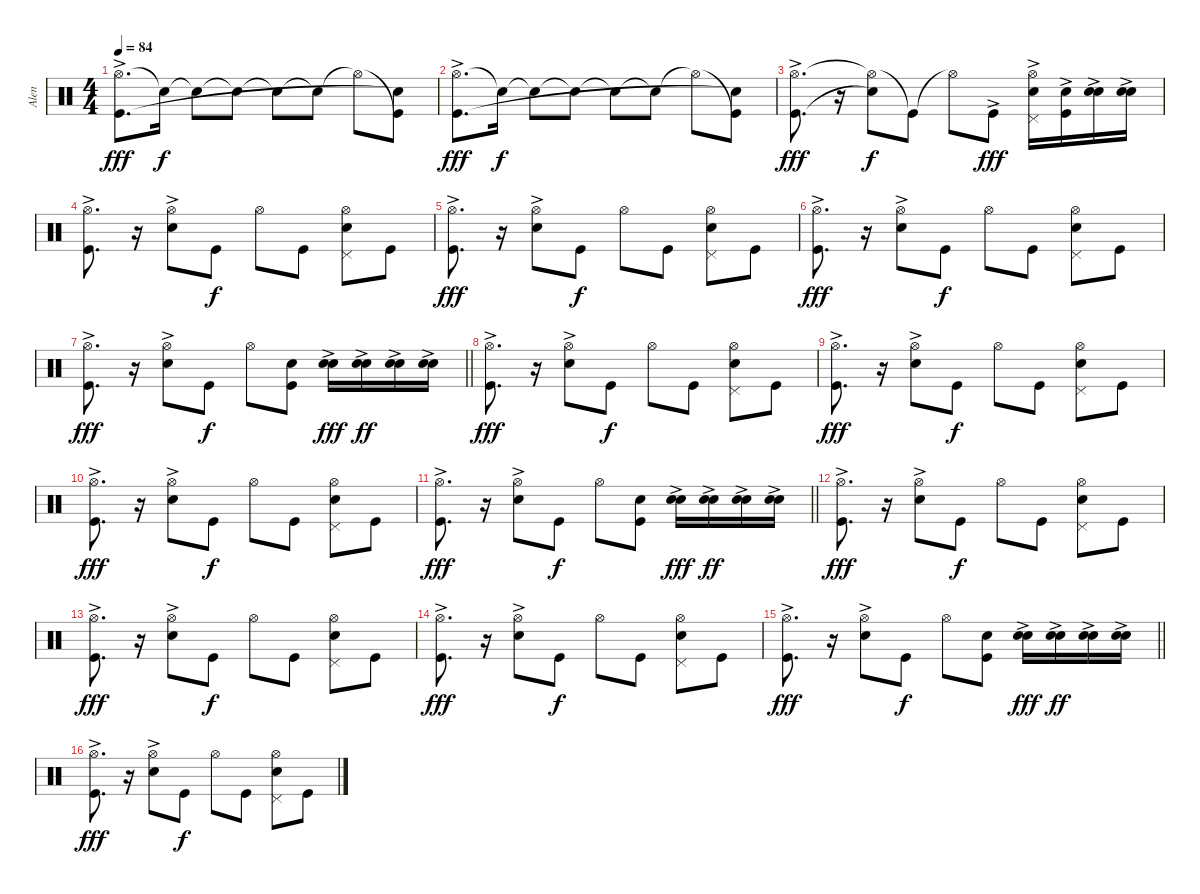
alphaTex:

\track ("Alen" "Alen") {instrument percussion}
\staff {score}
\articulation defaults
\ts (4 4)
\tempo 84
\clef neutral
\ks c
("Hi-Hat (open)"{ac} "Kick (hit)").8{d dy fff} "Snare (hit)"{t}.16{dy f} "Snare (hit) 2"{t}.8 "Snare (hit)"{t}.8 "Snare (hit)"{t}.8 "Snare (hit)"{t}.8 "Hi-Hat (open)"{t}.8 ("Kick (hit)"{t} "Snare (hit)"{t}).8 |
("Hi-Hat (open)"{ac} "Kick (hit)").8{d dy fff} "Snare (hit)"{t}.16{dy f} "Snare (hit) 2"{t}.8 "Snare (hit)"{t}.8 "Snare (hit)"{t}.8 "Snare (hit)"{t}.8 "Hi-Hat (open)"{t}.8 ("Kick (hit)"{t} "Snare (hit)"{t}).8 |
("Hi-Hat (open)"{ac} "Kick (hit)").8{d dy fff} r.16 ("Hi-Hat (open)"{t} "Snare (hit) 2"{t}).8{dy f} "Kick (hit)"{t}.8 "Hi-Hat (open)"{t}.8 "Kick (hit)"{ac}.8{dy fff} ("Pedal Hi-Hat (hit)"{ac} "Snare (hit) 2"{ac} "Hi-Hat (open)"{ac}).16 ("Kick (hit)"{ac} "Electric Snare (hit)"{ac}).16 ("Snare (hit) 2"{ac} "Electric Snare (hit)"{ac}).16 ("Snare (hit) 2"{ac} "Electric Snare (hit)"{ac}).16 |
("Hi-Hat (open)"{ac} "Kick (hit)").8{d} r.16 ("Hi-Hat (open)" "Snare (hit) 2"{ac}).8 "Kick (hit)".8{dy f} "Hi-Hat (open)".8 "Kick (hit)".8 ("Pedal Hi-Hat (hit)" "Snare (hit) 2" "Hi-Hat (open)").8 "Kick (hit)".8 |
("Hi-Hat (open)"{ac} "Kick (hit)").8{d dy fff} r.16 ("Hi-Hat (open)" "Snare (hit) 2"{ac}).8 "Kick (hit)".8{dy f} "Hi-Hat (open)".8 "Kick (hit)".8 ("Pedal Hi-Hat (hit)" "Snare (hit) 2" "Hi-Hat (open)").8 "Kick (hit)".8 |
("Hi-Hat (open)"{ac} "Kick (hit)").8{d dy fff} r.16 ("Hi-Hat (open)" "Snare (hit) 2"{ac}).8 "Kick (hit)".8{dy f} "Hi-Hat (open)".8 "Kick (hit)".8 ("Pedal Hi-Hat (hit)" "Snare (hit) 2" "Hi-Hat (open)").8 "Kick (hit)".8 |
\barLineRight lightlight
("Hi-Hat (open)"{ac} "Kick (hit)").8{d dy fff} r.16 ("Hi-Hat (open)" "Snare (hit) 2"{ac}).8 "Kick (hit)".8{dy f} "Hi-Hat (open)".8 ("Electric Snare (hit)" "Kick (hit)").8 ("Snare (hit) 2"{ac} "Electric Snare (hit)"{ac}).16{dy fff} ("Snare (hit) 2"{ac} "Electric Snare (hit)").16{dy ff} ("Snare (hit) 2"{ac} "Electric Snare (hit)").16 ("Snare (hit) 2"{ac} "Electric Snare (hit)").16 |
("Hi-Hat (open)"{ac} "Kick (hit)").8{d dy fff} r.16 ("Hi-Hat (open)" "Snare (hit) 2"{ac}).8 "Kick (hit)".8{dy f} "Hi-Hat (open)".8 "Kick (hit)".8 ("Pedal Hi-Hat (hit)" "Snare (hit) 2" "Hi-Hat (open)").8 "Kick (hit)".8 |
("Hi-Hat (open)"{ac} "Kick (hit)").8{d dy fff} r.16 ("Hi-Hat (open)" "Snare (hit) 2"{ac}).8 "Kick (hit)".8{dy f} "Hi-Hat (open)".8 "Kick (hit)".8 ("Pedal Hi-Hat (hit)" "Snare (hit) 2" "Hi-Hat (open)").8 "Kick (hit)".8 |
("Hi-Hat (open)"{ac} "Kick (hit)").8{d dy fff} r.16 ("Hi-Hat (open)" "Snare (hit) 2"{ac}).8 "Kick (hit)".8{dy f} "Hi-Hat (open)".8 "Kick (hit)".8 ("Pedal Hi-Hat (hit)" "Snare (hit) 2" "Hi-Hat (open)").8 "Kick (hit)".8 |
\barLineRight lightlight
("Hi-Hat (open)"{ac} "Kick (hit)").8{d dy fff} r.16 ("Hi-Hat (open)" "Snare (hit) 2"{ac}).8 "Kick (hit)".8{dy f} "Hi-Hat (open)".8 ("Electric Snare (hit)" "Kick (hit)").8 ("Snare (hit) 2"{ac} "Electric Snare (hit)"{ac}).16{dy fff} ("Snare (hit) 2"{ac} "Electric Snare (hit)").16{dy ff} ("Snare (hit) 2"{ac} "Electric Snare (hit)").16 ("Snare (hit) 2"{ac} "Electric Snare (hit)").16 |
("Hi-Hat (open)"{ac} "Kick (hit)").8{d dy fff} r.16 ("Hi-Hat (open)" "Snare (hit) 2"{ac}).8 "Kick (hit)".8{dy f} "Hi-Hat (open)".8 "Kick (hit)".8 ("Pedal Hi-Hat (hit)" "Snare (hit) 2" "Hi-Hat (open)").8 "Kick (hit)".8 |
("Hi-Hat (open)"{ac} "Kick (hit)").8{d dy fff} r.16 ("Hi-Hat (open)" "Snare (hit) 2"{ac}).8 "Kick (hit)".8{dy f} "Hi-Hat (open)".8 "Kick (hit)".8 ("Pedal Hi-Hat (hit)" "Snare (hit) 2" "Hi-Hat (open)").8 "Kick (hit)".8 |
("Hi-Hat (open)"{ac} "Kick (hit)").8{d dy fff} r.16 ("Hi-Hat (open)" "Snare (hit) 2"{ac}).8 "Kick (hit)".8{dy f} "Hi-Hat (open)".8 "Kick (hit)".8 ("Pedal Hi-Hat (hit)" "Snare (hit) 2" "Hi-Hat (open)").8 "Kick (hit)".8 |
\barLineRight lightlight
("Hi-Hat (open)"{ac} "Kick (hit)").8{d dy fff} r.16 ("Hi-Hat (open)" "Snare (hit) 2"{ac}).8 "Kick (hit)".8{dy f} "Hi-Hat (open)".8 ("Electric Snare (hit)" "Kick (hit)").8 ("Snare (hit) 2"{ac} "Electric Snare (hit)"{ac}).16{dy fff} ("Snare (hit) 2"{ac} "Electric Snare (hit)").16{dy ff} ("Snare (hit) 2"{ac} "Electric Snare (hit)").16 ("Snare (hit) 2"{ac} "Electric Snare (hit)").16 |
("Hi-Hat (open)"{ac} "Kick (hit)").8{d dy fff} r.16 ("Hi-Hat (open)" "Snare (hit) 2"{ac}).8 "Kick (hit)".8{dy f} "Hi-Hat (open)".8 "Kick (hit)".8 ("Pedal Hi-Hat (hit)" "Snare (hit) 2" "Hi-Hat (open)").8 "Kick (hit)".8
